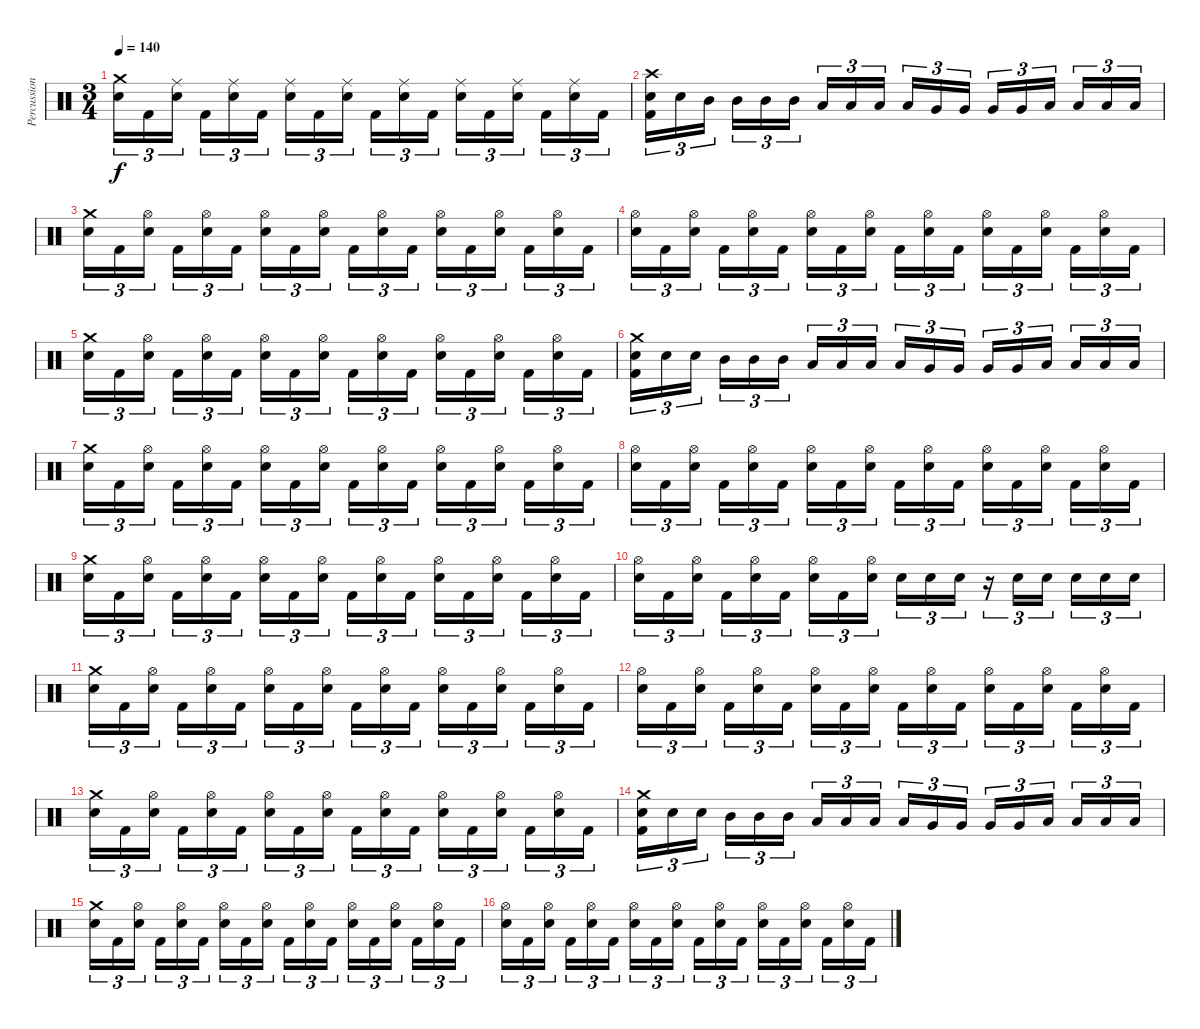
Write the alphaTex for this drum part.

\track ("Percussion" "Percussion") {instrument percussion}
\staff {score}
\articulation defaults
\ts (3 4)
\tempo 140
\clef neutral
\ks c
("Crash medium (hit)" "Electric Snare (hit)").16{tu (3 2) dy f} "Kick (hit) 2".16{tu (3 2)} ("Ride (middle)" "Electric Snare (hit)").16{tu (3 2)} "Kick (hit) 2".16{tu (3 2)} ("Ride (middle)" "Electric Snare (hit)").16{tu (3 2)} "Kick (hit) 2".16{tu (3 2)} ("Ride (middle)" "Electric Snare (hit)").16{tu (3 2)} "Kick (hit) 2".16{tu (3 2)} ("Ride (middle)" "Electric Snare (hit)").16{tu (3 2)} "Kick (hit) 2".16{tu (3 2)} ("Ride (middle)" "Electric Snare (hit)").16{tu (3 2)} "Kick (hit) 2".16{tu (3 2)} ("Ride (middle)" "Electric Snare (hit)").16{tu (3 2)} "Kick (hit) 2".16{tu (3 2)} ("Ride (middle)" "Electric Snare (hit)").16{tu (3 2)} "Kick (hit) 2".16{tu (3 2)} ("Ride (middle)" "Electric Snare (hit)").16{tu (3 2)} "Kick (hit) 2".16{tu (3 2)} |
("Crash high (hit)" "Electric Snare (hit)" "Kick (hit) 2").16{tu (3 2)} "Electric Snare (hit)".16{tu (3 2)} "Mid Tom (hit)".16{tu (3 2)} "Mid Tom (hit)".16{tu (3 2)} "Mid Tom (hit)".16{tu (3 2)} "Mid Tom (hit)".16{tu (3 2)} "Low Tom (hit)".16{tu (3 2)} "Low Tom (hit)".16{tu (3 2)} "Low Tom (hit)".16{tu (3 2)} "Low Tom (hit)".16{tu (3 2)} "Very Low Tom (hit)".16{tu (3 2)} "Very Low Tom (hit)".16{tu (3 2)} "Very Low Tom (hit)".16{tu (3 2)} "Very Low Tom (hit)".16{tu (3 2)} "Low Floor Tom (hit)".16{tu (3 2)} "Low Floor Tom (hit)".16{tu (3 2)} "Low Floor Tom (hit)".16{tu (3 2)} "Low Floor Tom (hit)".16{tu (3 2)} |
("Crash medium (hit)" "Electric Snare (hit)").16{tu (3 2)} "Kick (hit) 2".16{tu (3 2)} ("Hi-Hat (open)" "Electric Snare (hit)").16{tu (3 2)} "Kick (hit) 2".16{tu (3 2)} ("Hi-Hat (open)" "Electric Snare (hit)").16{tu (3 2)} "Kick (hit) 2".16{tu (3 2)} ("Hi-Hat (open)" "Electric Snare (hit)").16{tu (3 2)} "Kick (hit) 2".16{tu (3 2)} ("Hi-Hat (open)" "Electric Snare (hit)").16{tu (3 2)} "Kick (hit) 2".16{tu (3 2)} ("Hi-Hat (open)" "Electric Snare (hit)").16{tu (3 2)} "Kick (hit) 2".16{tu (3 2)} ("Hi-Hat (open)" "Electric Snare (hit)").16{tu (3 2)} "Kick (hit) 2".16{tu (3 2)} ("Hi-Hat (open)" "Electric Snare (hit)").16{tu (3 2)} "Kick (hit) 2".16{tu (3 2)} ("Hi-Hat (open)" "Electric Snare (hit)").16{tu (3 2)} "Kick (hit) 2".16{tu (3 2)} |
("Hi-Hat (open)" "Electric Snare (hit)").16{tu (3 2)} "Kick (hit) 2".16{tu (3 2)} ("Hi-Hat (open)" "Electric Snare (hit)").16{tu (3 2)} "Kick (hit) 2".16{tu (3 2)} ("Hi-Hat (open)" "Electric Snare (hit)").16{tu (3 2)} "Kick (hit) 2".16{tu (3 2)} ("Hi-Hat (open)" "Electric Snare (hit)").16{tu (3 2)} "Kick (hit) 2".16{tu (3 2)} ("Hi-Hat (open)" "Electric Snare (hit)").16{tu (3 2)} "Kick (hit) 2".16{tu (3 2)} ("Hi-Hat (open)" "Electric Snare (hit)").16{tu (3 2)} "Kick (hit) 2".16{tu (3 2)} ("Hi-Hat (open)" "Electric Snare (hit)").16{tu (3 2)} "Kick (hit) 2".16{tu (3 2)} ("Hi-Hat (open)" "Electric Snare (hit)").16{tu (3 2)} "Kick (hit) 2".16{tu (3 2)} ("Hi-Hat (open)" "Electric Snare (hit)").16{tu (3 2)} "Kick (hit) 2".16{tu (3 2)} |
("Crash medium (hit)" "Electric Snare (hit)").16{tu (3 2)} "Kick (hit) 2".16{tu (3 2)} ("Hi-Hat (open)" "Electric Snare (hit)").16{tu (3 2)} "Kick (hit) 2".16{tu (3 2)} ("Hi-Hat (open)" "Electric Snare (hit)").16{tu (3 2)} "Kick (hit) 2".16{tu (3 2)} ("Hi-Hat (open)" "Electric Snare (hit)").16{tu (3 2)} "Kick (hit) 2".16{tu (3 2)} ("Hi-Hat (open)" "Electric Snare (hit)").16{tu (3 2)} "Kick (hit) 2".16{tu (3 2)} ("Hi-Hat (open)" "Electric Snare (hit)").16{tu (3 2)} "Kick (hit) 2".16{tu (3 2)} ("Hi-Hat (open)" "Electric Snare (hit)").16{tu (3 2)} "Kick (hit) 2".16{tu (3 2)} ("Hi-Hat (open)" "Electric Snare (hit)").16{tu (3 2)} "Kick (hit) 2".16{tu (3 2)} ("Hi-Hat (open)" "Electric Snare (hit)").16{tu (3 2)} "Kick (hit) 2".16{tu (3 2)} |
("Crash medium (hit)" "Electric Snare (hit)" "Kick (hit) 2").16{tu (3 2)} "Electric Snare (hit)".16{tu (3 2)} "Electric Snare (hit)".16{tu (3 2)} "Mid Tom (hit)".16{tu (3 2)} "Mid Tom (hit)".16{tu (3 2)} "Mid Tom (hit)".16{tu (3 2)} "Low Tom (hit)".16{tu (3 2)} "Low Tom (hit)".16{tu (3 2)} "Low Tom (hit)".16{tu (3 2)} "Low Tom (hit)".16{tu (3 2)} "Very Low Tom (hit)".16{tu (3 2)} "Very Low Tom (hit)".16{tu (3 2)} "Very Low Tom (hit)".16{tu (3 2)} "Very Low Tom (hit)".16{tu (3 2)} "Low Floor Tom (hit)".16{tu (3 2)} "Low Floor Tom (hit)".16{tu (3 2)} "Low Floor Tom (hit)".16{tu (3 2)} "Low Floor Tom (hit)".16{tu (3 2)} |
("Crash medium (hit)" "Electric Snare (hit)").16{tu (3 2)} "Kick (hit) 2".16{tu (3 2)} ("Hi-Hat (open)" "Electric Snare (hit)").16{tu (3 2)} "Kick (hit) 2".16{tu (3 2)} ("Hi-Hat (open)" "Electric Snare (hit)").16{tu (3 2)} "Kick (hit) 2".16{tu (3 2)} ("Hi-Hat (open)" "Electric Snare (hit)").16{tu (3 2)} "Kick (hit) 2".16{tu (3 2)} ("Hi-Hat (open)" "Electric Snare (hit)").16{tu (3 2)} "Kick (hit) 2".16{tu (3 2)} ("Hi-Hat (open)" "Electric Snare (hit)").16{tu (3 2)} "Kick (hit) 2".16{tu (3 2)} ("Hi-Hat (open)" "Electric Snare (hit)").16{tu (3 2)} "Kick (hit) 2".16{tu (3 2)} ("Hi-Hat (open)" "Electric Snare (hit)").16{tu (3 2)} "Kick (hit) 2".16{tu (3 2)} ("Hi-Hat (open)" "Electric Snare (hit)").16{tu (3 2)} "Kick (hit) 2".16{tu (3 2)} |
("Hi-Hat (open)" "Electric Snare (hit)").16{tu (3 2)} "Kick (hit) 2".16{tu (3 2)} ("Hi-Hat (open)" "Electric Snare (hit)").16{tu (3 2)} "Kick (hit) 2".16{tu (3 2)} ("Hi-Hat (open)" "Electric Snare (hit)").16{tu (3 2)} "Kick (hit) 2".16{tu (3 2)} ("Hi-Hat (open)" "Electric Snare (hit)").16{tu (3 2)} "Kick (hit) 2".16{tu (3 2)} ("Hi-Hat (open)" "Electric Snare (hit)").16{tu (3 2)} "Kick (hit) 2".16{tu (3 2)} ("Hi-Hat (open)" "Electric Snare (hit)").16{tu (3 2)} "Kick (hit) 2".16{tu (3 2)} ("Hi-Hat (open)" "Electric Snare (hit)").16{tu (3 2)} "Kick (hit) 2".16{tu (3 2)} ("Hi-Hat (open)" "Electric Snare (hit)").16{tu (3 2)} "Kick (hit) 2".16{tu (3 2)} ("Hi-Hat (open)" "Electric Snare (hit)").16{tu (3 2)} "Kick (hit) 2".16{tu (3 2)} |
("Crash medium (hit)" "Electric Snare (hit)").16{tu (3 2)} "Kick (hit) 2".16{tu (3 2)} ("Hi-Hat (open)" "Electric Snare (hit)").16{tu (3 2)} "Kick (hit) 2".16{tu (3 2)} ("Hi-Hat (open)" "Electric Snare (hit)").16{tu (3 2)} "Kick (hit) 2".16{tu (3 2)} ("Hi-Hat (open)" "Electric Snare (hit)").16{tu (3 2)} "Kick (hit) 2".16{tu (3 2)} ("Hi-Hat (open)" "Electric Snare (hit)").16{tu (3 2)} "Kick (hit) 2".16{tu (3 2)} ("Hi-Hat (open)" "Electric Snare (hit)").16{tu (3 2)} "Kick (hit) 2".16{tu (3 2)} ("Hi-Hat (open)" "Electric Snare (hit)").16{tu (3 2)} "Kick (hit) 2".16{tu (3 2)} ("Hi-Hat (open)" "Electric Snare (hit)").16{tu (3 2)} "Kick (hit) 2".16{tu (3 2)} ("Hi-Hat (open)" "Electric Snare (hit)").16{tu (3 2)} "Kick (hit) 2".16{tu (3 2)} |
("Hi-Hat (open)" "Electric Snare (hit)").16{tu (3 2)} "Kick (hit) 2".16{tu (3 2)} ("Hi-Hat (open)" "Electric Snare (hit)").16{tu (3 2)} "Kick (hit) 2".16{tu (3 2)} ("Hi-Hat (open)" "Electric Snare (hit)").16{tu (3 2)} "Kick (hit) 2".16{tu (3 2)} ("Hi-Hat (open)" "Electric Snare (hit)").16{tu (3 2)} "Kick (hit) 2".16{tu (3 2)} ("Hi-Hat (open)" "Electric Snare (hit)").16{tu (3 2)} "Electric Snare (hit)".16{tu (3 2)} "Electric Snare (hit)".16{tu (3 2)} "Electric Snare (hit)".16{tu (3 2)} r.16{tu (3 2)} "Electric Snare (hit)".16{tu (3 2)} "Electric Snare (hit)".16{tu (3 2)} "Electric Snare (hit)".16{tu (3 2)} "Electric Snare (hit)".16{tu (3 2)} "Electric Snare (hit)".16{tu (3 2)} |
("Crash medium (hit)" "Electric Snare (hit)").16{tu (3 2)} "Kick (hit) 2".16{tu (3 2)} ("Hi-Hat (open)" "Electric Snare (hit)").16{tu (3 2)} "Kick (hit) 2".16{tu (3 2)} ("Hi-Hat (open)" "Electric Snare (hit)").16{tu (3 2)} "Kick (hit) 2".16{tu (3 2)} ("Hi-Hat (open)" "Electric Snare (hit)").16{tu (3 2)} "Kick (hit) 2".16{tu (3 2)} ("Hi-Hat (open)" "Electric Snare (hit)").16{tu (3 2)} "Kick (hit) 2".16{tu (3 2)} ("Hi-Hat (open)" "Electric Snare (hit)").16{tu (3 2)} "Kick (hit) 2".16{tu (3 2)} ("Hi-Hat (open)" "Electric Snare (hit)").16{tu (3 2)} "Kick (hit) 2".16{tu (3 2)} ("Hi-Hat (open)" "Electric Snare (hit)").16{tu (3 2)} "Kick (hit) 2".16{tu (3 2)} ("Hi-Hat (open)" "Electric Snare (hit)").16{tu (3 2)} "Kick (hit) 2".16{tu (3 2)} |
("Hi-Hat (open)" "Electric Snare (hit)").16{tu (3 2)} "Kick (hit) 2".16{tu (3 2)} ("Hi-Hat (open)" "Electric Snare (hit)").16{tu (3 2)} "Kick (hit) 2".16{tu (3 2)} ("Hi-Hat (open)" "Electric Snare (hit)").16{tu (3 2)} "Kick (hit) 2".16{tu (3 2)} ("Hi-Hat (open)" "Electric Snare (hit)").16{tu (3 2)} "Kick (hit) 2".16{tu (3 2)} ("Hi-Hat (open)" "Electric Snare (hit)").16{tu (3 2)} "Kick (hit) 2".16{tu (3 2)} ("Hi-Hat (open)" "Electric Snare (hit)").16{tu (3 2)} "Kick (hit) 2".16{tu (3 2)} ("Hi-Hat (open)" "Electric Snare (hit)").16{tu (3 2)} "Kick (hit) 2".16{tu (3 2)} ("Hi-Hat (open)" "Electric Snare (hit)").16{tu (3 2)} "Kick (hit) 2".16{tu (3 2)} ("Hi-Hat (open)" "Electric Snare (hit)").16{tu (3 2)} "Kick (hit) 2".16{tu (3 2)} |
("Crash medium (hit)" "Electric Snare (hit)").16{tu (3 2)} "Kick (hit) 2".16{tu (3 2)} ("Hi-Hat (open)" "Electric Snare (hit)").16{tu (3 2)} "Kick (hit) 2".16{tu (3 2)} ("Hi-Hat (open)" "Electric Snare (hit)").16{tu (3 2)} "Kick (hit) 2".16{tu (3 2)} ("Hi-Hat (open)" "Electric Snare (hit)").16{tu (3 2)} "Kick (hit) 2".16{tu (3 2)} ("Hi-Hat (open)" "Electric Snare (hit)").16{tu (3 2)} "Kick (hit) 2".16{tu (3 2)} ("Hi-Hat (open)" "Electric Snare (hit)").16{tu (3 2)} "Kick (hit) 2".16{tu (3 2)} ("Hi-Hat (open)" "Electric Snare (hit)").16{tu (3 2)} "Kick (hit) 2".16{tu (3 2)} ("Hi-Hat (open)" "Electric Snare (hit)").16{tu (3 2)} "Kick (hit) 2".16{tu (3 2)} ("Hi-Hat (open)" "Electric Snare (hit)").16{tu (3 2)} "Kick (hit) 2".16{tu (3 2)} |
("Crash medium (hit)" "Electric Snare (hit)" "Kick (hit) 2").16{tu (3 2)} "Electric Snare (hit)".16{tu (3 2)} "Electric Snare (hit)".16{tu (3 2)} "Mid Tom (hit)".16{tu (3 2)} "Mid Tom (hit)".16{tu (3 2)} "Mid Tom (hit)".16{tu (3 2)} "Low Tom (hit)".16{tu (3 2)} "Low Tom (hit)".16{tu (3 2)} "Low Tom (hit)".16{tu (3 2)} "Low Tom (hit)".16{tu (3 2)} "Very Low Tom (hit)".16{tu (3 2)} "Very Low Tom (hit)".16{tu (3 2)} "Very Low Tom (hit)".16{tu (3 2)} "Very Low Tom (hit)".16{tu (3 2)} "Low Floor Tom (hit)".16{tu (3 2)} "Low Floor Tom (hit)".16{tu (3 2)} "Low Floor Tom (hit)".16{tu (3 2)} "Low Floor Tom (hit)".16{tu (3 2)} |
("Crash medium (hit)" "Electric Snare (hit)").16{tu (3 2)} "Kick (hit) 2".16{tu (3 2)} ("Hi-Hat (open)" "Electric Snare (hit)").16{tu (3 2)} "Kick (hit) 2".16{tu (3 2)} ("Hi-Hat (open)" "Electric Snare (hit)").16{tu (3 2)} "Kick (hit) 2".16{tu (3 2)} ("Hi-Hat (open)" "Electric Snare (hit)").16{tu (3 2)} "Kick (hit) 2".16{tu (3 2)} ("Hi-Hat (open)" "Electric Snare (hit)").16{tu (3 2)} "Kick (hit) 2".16{tu (3 2)} ("Hi-Hat (open)" "Electric Snare (hit)").16{tu (3 2)} "Kick (hit) 2".16{tu (3 2)} ("Hi-Hat (open)" "Electric Snare (hit)").16{tu (3 2)} "Kick (hit) 2".16{tu (3 2)} ("Hi-Hat (open)" "Electric Snare (hit)").16{tu (3 2)} "Kick (hit) 2".16{tu (3 2)} ("Hi-Hat (open)" "Electric Snare (hit)").16{tu (3 2)} "Kick (hit) 2".16{tu (3 2)} |
("Hi-Hat (open)" "Electric Snare (hit)").16{tu (3 2)} "Kick (hit) 2".16{tu (3 2)} ("Hi-Hat (open)" "Electric Snare (hit)").16{tu (3 2)} "Kick (hit) 2".16{tu (3 2)} ("Hi-Hat (open)" "Electric Snare (hit)").16{tu (3 2)} "Kick (hit) 2".16{tu (3 2)} ("Hi-Hat (open)" "Electric Snare (hit)").16{tu (3 2)} "Kick (hit) 2".16{tu (3 2)} ("Hi-Hat (open)" "Electric Snare (hit)").16{tu (3 2)} "Kick (hit) 2".16{tu (3 2)} ("Hi-Hat (open)" "Electric Snare (hit)").16{tu (3 2)} "Kick (hit) 2".16{tu (3 2)} ("Hi-Hat (open)" "Electric Snare (hit)").16{tu (3 2)} "Kick (hit) 2".16{tu (3 2)} ("Hi-Hat (open)" "Electric Snare (hit)").16{tu (3 2)} "Kick (hit) 2".16{tu (3 2)} ("Hi-Hat (open)" "Electric Snare (hit)").16{tu (3 2)} "Kick (hit) 2".16{tu (3 2)}
